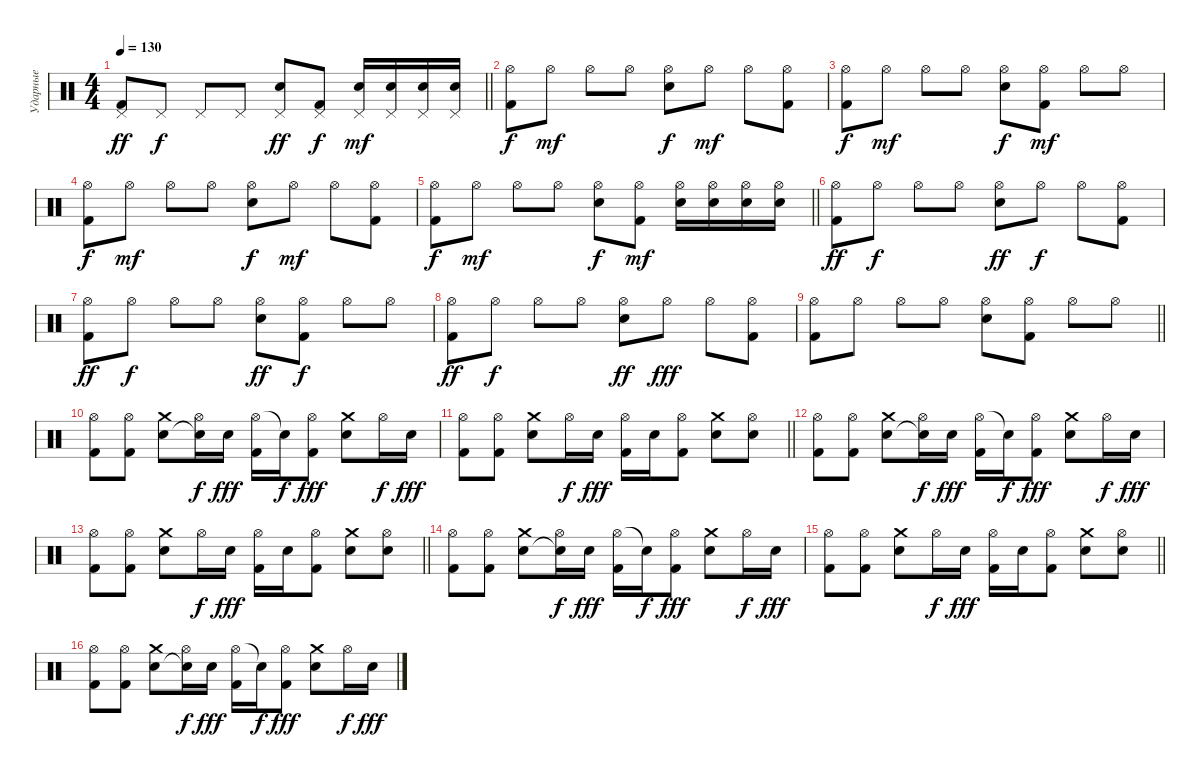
\track ("Ударные" "Ударные") {instrument percussion}
\staff {score}
\articulation defaults
\ts (4 4)
\tempo 130
\clef neutral
\barLineRight lightlight
\ks c
("Pedal Hi-Hat (hit)" "Kick (hit) 2").8{dy ff} "Pedal Hi-Hat (hit)".8{dy f} "Pedal Hi-Hat (hit)".8 "Pedal Hi-Hat (hit)".8 ("Pedal Hi-Hat (hit)" "Snare (hit) 2").8{dy ff} ("Pedal Hi-Hat (hit)" "Kick (hit) 2").8{dy f} ("Pedal Hi-Hat (hit)" "Snare (hit) 2").16{dy mf} ("Pedal Hi-Hat (hit)" "Snare (hit) 2").16 ("Pedal Hi-Hat (hit)" "Snare (hit) 2").16 ("Pedal Hi-Hat (hit)" "Snare (hit) 2").16 |
("Hi-Hat (open)" "Kick (hit) 2").8{dy f} "Hi-Hat (open)".8{dy mf} "Hi-Hat (open)".8 "Hi-Hat (open)".8 ("Hi-Hat (open)" "Snare (hit) 2").8{dy f} "Hi-Hat (open)".8{dy mf} "Hi-Hat (open)".8 ("Hi-Hat (open)" "Kick (hit) 2").8 |
("Hi-Hat (open)" "Kick (hit) 2").8{dy f} "Hi-Hat (open)".8{dy mf} "Hi-Hat (open)".8 "Hi-Hat (open)".8 ("Hi-Hat (open)" "Snare (hit) 2").8{dy f} ("Hi-Hat (open)" "Kick (hit) 2").8{dy mf} "Hi-Hat (open)".8 "Hi-Hat (open)".8 |
("Hi-Hat (open)" "Kick (hit) 2").8{dy f} "Hi-Hat (open)".8{dy mf} "Hi-Hat (open)".8 "Hi-Hat (open)".8 ("Hi-Hat (open)" "Snare (hit) 2").8{dy f} "Hi-Hat (open)".8{dy mf} "Hi-Hat (open)".8 ("Hi-Hat (open)" "Kick (hit) 2").8 |
\barLineRight lightlight
("Hi-Hat (open)" "Kick (hit) 2").8{dy f} "Hi-Hat (open)".8{dy mf} "Hi-Hat (open)".8 "Hi-Hat (open)".8 ("Hi-Hat (open)" "Snare (hit) 2").8{dy f} ("Hi-Hat (open)" "Kick (hit) 2").8{dy mf} ("Hi-Hat (open)" "Snare (hit) 2").16 ("Hi-Hat (open)" "Snare (hit) 2").16 ("Hi-Hat (open)" "Snare (hit) 2").16 ("Hi-Hat (open)" "Snare (hit) 2").16 |
("Hi-Hat (open)" "Kick (hit) 2").8{dy ff} "Hi-Hat (open)".8{dy f} "Hi-Hat (open)".8 "Hi-Hat (open)".8 ("Hi-Hat (open)" "Snare (hit) 2").8{dy ff} "Hi-Hat (open)".8{dy f} "Hi-Hat (open)".8 ("Hi-Hat (open)" "Kick (hit) 2").8 |
("Hi-Hat (open)" "Kick (hit) 2").8{dy ff} "Hi-Hat (open)".8{dy f} "Hi-Hat (open)".8 "Hi-Hat (open)".8 ("Hi-Hat (open)" "Snare (hit) 2").8{dy ff} ("Hi-Hat (open)" "Kick (hit) 2").8{dy f} "Hi-Hat (open)".8 "Hi-Hat (open)".8 |
("Hi-Hat (open)" "Kick (hit) 2").8{dy ff} "Hi-Hat (open)".8{dy f} "Hi-Hat (open)".8 "Hi-Hat (open)".8 ("Hi-Hat (open)" "Snare (hit) 2").8{dy ff} "Hi-Hat (open)".8{dy fff} "Hi-Hat (open)".8 ("Hi-Hat (open)" "Kick (hit) 2").8 |
\barLineRight lightlight
("Hi-Hat (open)" "Kick (hit) 2").8 "Hi-Hat (open)".8 "Hi-Hat (open)".8 "Hi-Hat (open)".8 ("Hi-Hat (open)" "Snare (hit) 2").8 ("Hi-Hat (open)" "Kick (hit) 2").8 "Hi-Hat (open)".8 "Hi-Hat (open)".8 |
("Hi-Hat (open)" "Kick (hit) 2").8 ("Hi-Hat (open)" "Kick (hit) 2").8 ("Crash medium (hit)" "Electric Snare (hit)").8 ("Hi-Hat (open)" "Snare (hit)"{t}).16{dy f} "Electric Snare (hit)".16{dy fff} ("Hi-Hat (open)" "Kick (hit) 2").16 "Snare (hit)"{t}.16{dy f} ("Hi-Hat (open)" "Kick (hit) 2").8{dy fff} ("Crash medium (hit)" "Electric Snare (hit)").8 "Hi-Hat (open)".16{dy f} "Electric Snare (hit)".16{dy fff} |
\barLineRight lightlight
("Hi-Hat (open)" "Kick (hit) 2").8 ("Hi-Hat (open)" "Kick (hit) 2").8 ("Crash medium (hit)" "Electric Snare (hit)").8 "Hi-Hat (open)".16{dy f} "Electric Snare (hit)".16{dy fff} ("Hi-Hat (open)" "Kick (hit) 2").16 "Electric Snare (hit)".16 ("Hi-Hat (open)" "Kick (hit) 2").8 ("Crash medium (hit)" "Electric Snare (hit)").8 ("Hi-Hat (open)" "Electric Snare (hit)").8 |
("Hi-Hat (open)" "Kick (hit) 2").8 ("Hi-Hat (open)" "Kick (hit) 2").8 ("Crash medium (hit)" "Electric Snare (hit)").8 ("Hi-Hat (open)" "Snare (hit)"{t}).16{dy f} "Electric Snare (hit)".16{dy fff} ("Hi-Hat (open)" "Kick (hit) 2").16 "Snare (hit)"{t}.16{dy f} ("Hi-Hat (open)" "Kick (hit) 2").8{dy fff} ("Crash medium (hit)" "Electric Snare (hit)").8 "Hi-Hat (open)".16{dy f} "Electric Snare (hit)".16{dy fff} |
\barLineRight lightlight
("Hi-Hat (open)" "Kick (hit) 2").8 ("Hi-Hat (open)" "Kick (hit) 2").8 ("Crash medium (hit)" "Electric Snare (hit)").8 "Hi-Hat (open)".16{dy f} "Electric Snare (hit)".16{dy fff} ("Hi-Hat (open)" "Kick (hit) 2").16 "Electric Snare (hit)".16 ("Hi-Hat (open)" "Kick (hit) 2").8 ("Crash medium (hit)" "Electric Snare (hit)").8 ("Hi-Hat (open)" "Electric Snare (hit)").8 |
("Hi-Hat (open)" "Kick (hit) 2").8 ("Hi-Hat (open)" "Kick (hit) 2").8 ("Crash medium (hit)" "Electric Snare (hit)").8 ("Hi-Hat (open)" "Snare (hit)"{t}).16{dy f} "Electric Snare (hit)".16{dy fff} ("Hi-Hat (open)" "Kick (hit) 2").16 "Snare (hit)"{t}.16{dy f} ("Hi-Hat (open)" "Kick (hit) 2").8{dy fff} ("Crash medium (hit)" "Electric Snare (hit)").8 "Hi-Hat (open)".16{dy f} "Electric Snare (hit)".16{dy fff} |
\barLineRight lightlight
("Hi-Hat (open)" "Kick (hit) 2").8 ("Hi-Hat (open)" "Kick (hit) 2").8 ("Crash medium (hit)" "Electric Snare (hit)").8 "Hi-Hat (open)".16{dy f} "Electric Snare (hit)".16{dy fff} ("Hi-Hat (open)" "Kick (hit) 2").16 "Electric Snare (hit)".16 ("Hi-Hat (open)" "Kick (hit) 2").8 ("Crash medium (hit)" "Electric Snare (hit)").8 ("Hi-Hat (open)" "Electric Snare (hit)").8 |
("Hi-Hat (open)" "Kick (hit) 2").8 ("Hi-Hat (open)" "Kick (hit) 2").8 ("Crash medium (hit)" "Electric Snare (hit)").8 ("Hi-Hat (open)" "Snare (hit)"{t}).16{dy f} "Electric Snare (hit)".16{dy fff} ("Hi-Hat (open)" "Kick (hit) 2").16 "Snare (hit)"{t}.16{dy f} ("Hi-Hat (open)" "Kick (hit) 2").8{dy fff} ("Crash medium (hit)" "Electric Snare (hit)").8 "Hi-Hat (open)".16{dy f} "Electric Snare (hit)".16{dy fff}
